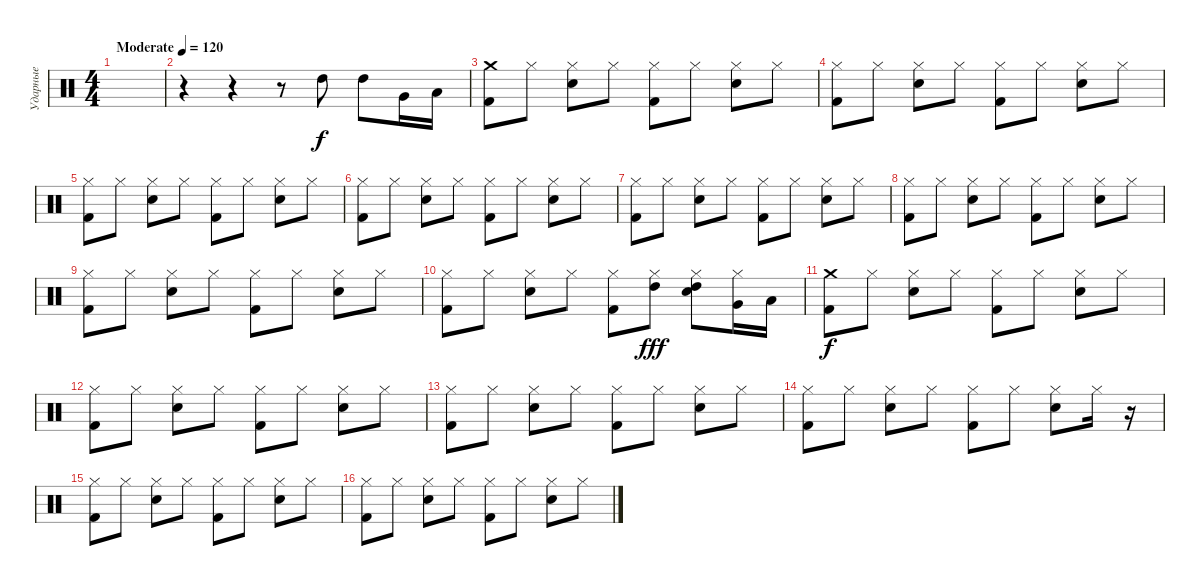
\track ("Ударные" "Ударные") {instrument percussion}
\staff {score}
\articulation defaults
\ts (4 4)
\tempo (120 "Moderate")
\clef neutral
\ks c
|
r.4 r.4 r.8 "High Tom (hit)".8 "High Tom (hit)".8 "Very Low Tom (hit)".16 "Low Floor Tom (hit)".16 |
("Kick (hit) 2" "Crash medium (hit)").8{dy f} "Hi-Hat (closed)".8 ("Electric Snare (hit)" "Hi-Hat (closed)").8 "Hi-Hat (closed)".8 ("Kick (hit) 2" "Hi-Hat (closed)").8 "Hi-Hat (closed)".8 ("Electric Snare (hit)" "Hi-Hat (closed)").8 "Hi-Hat (closed)".8 |
("Kick (hit) 2" "Hi-Hat (closed)").8 "Hi-Hat (closed)".8 ("Electric Snare (hit)" "Hi-Hat (closed)").8 "Hi-Hat (closed)".8 ("Kick (hit) 2" "Hi-Hat (closed)").8 "Hi-Hat (closed)".8 ("Electric Snare (hit)" "Hi-Hat (closed)").8 "Hi-Hat (closed)".8 |
("Kick (hit) 2" "Hi-Hat (closed)").8 "Hi-Hat (closed)".8 ("Electric Snare (hit)" "Hi-Hat (closed)").8 "Hi-Hat (closed)".8 ("Kick (hit) 2" "Hi-Hat (closed)").8 "Hi-Hat (closed)".8 ("Electric Snare (hit)" "Hi-Hat (closed)").8 "Hi-Hat (closed)".8 |
("Kick (hit) 2" "Hi-Hat (closed)").8 "Hi-Hat (closed)".8 ("Electric Snare (hit)" "Hi-Hat (closed)").8 "Hi-Hat (closed)".8 ("Kick (hit) 2" "Hi-Hat (closed)").8 "Hi-Hat (closed)".8 ("Electric Snare (hit)" "Hi-Hat (closed)").8 "Hi-Hat (closed)".8 |
("Kick (hit) 2" "Hi-Hat (closed)").8 "Hi-Hat (closed)".8 ("Electric Snare (hit)" "Hi-Hat (closed)").8 "Hi-Hat (closed)".8 ("Kick (hit) 2" "Hi-Hat (closed)").8 "Hi-Hat (closed)".8 ("Electric Snare (hit)" "Hi-Hat (closed)").8 "Hi-Hat (closed)".8 |
("Kick (hit) 2" "Hi-Hat (closed)").8 "Hi-Hat (closed)".8 ("Electric Snare (hit)" "Hi-Hat (closed)").8 "Hi-Hat (closed)".8 ("Kick (hit) 2" "Hi-Hat (closed)").8 "Hi-Hat (closed)".8 ("Electric Snare (hit)" "Hi-Hat (closed)").8 "Hi-Hat (closed)".8 |
("Kick (hit) 2" "Hi-Hat (closed)").8 "Hi-Hat (closed)".8 ("Electric Snare (hit)" "Hi-Hat (closed)").8 "Hi-Hat (closed)".8 ("Kick (hit) 2" "Hi-Hat (closed)").8 "Hi-Hat (closed)".8 ("Electric Snare (hit)" "Hi-Hat (closed)").8 "Hi-Hat (closed)".8 |
("Kick (hit) 2" "Hi-Hat (closed)").8 "Hi-Hat (closed)".8 ("Electric Snare (hit)" "Hi-Hat (closed)").8 "Hi-Hat (closed)".8 ("Kick (hit) 2" "Hi-Hat (closed)").8 ("Hi-Hat (closed)" "High Tom (hit)").8{dy fff} ("Electric Snare (hit)" "Hi-Hat (closed)" "High Tom (hit)").8 ("Hi-Hat (closed)" "Very Low Tom (hit)").16 "Low Floor Tom (hit)".16 |
("Kick (hit) 2" "Crash medium (hit)").8{dy f} "Hi-Hat (closed)".8 ("Electric Snare (hit)" "Hi-Hat (closed)").8 "Hi-Hat (closed)".8 ("Kick (hit) 2" "Hi-Hat (closed)").8 "Hi-Hat (closed)".8 ("Electric Snare (hit)" "Hi-Hat (closed)").8 "Hi-Hat (closed)".8 |
("Kick (hit) 2" "Hi-Hat (closed)").8 "Hi-Hat (closed)".8 ("Electric Snare (hit)" "Hi-Hat (closed)").8 "Hi-Hat (closed)".8 ("Kick (hit) 2" "Hi-Hat (closed)").8 "Hi-Hat (closed)".8 ("Electric Snare (hit)" "Hi-Hat (closed)").8 "Hi-Hat (closed)".8 |
("Kick (hit) 2" "Hi-Hat (closed)").8 "Hi-Hat (closed)".8 ("Electric Snare (hit)" "Hi-Hat (closed)").8 "Hi-Hat (closed)".8 ("Kick (hit) 2" "Hi-Hat (closed)").8 "Hi-Hat (closed)".8 ("Electric Snare (hit)" "Hi-Hat (closed)").8 "Hi-Hat (closed)".8 |
("Kick (hit) 2" "Hi-Hat (closed)").8 "Hi-Hat (closed)".8 ("Electric Snare (hit)" "Hi-Hat (closed)").8 "Hi-Hat (closed)".8 ("Kick (hit) 2" "Hi-Hat (closed)").8 "Hi-Hat (closed)".8 ("Electric Snare (hit)" "Hi-Hat (closed)").8 "Hi-Hat (closed)".16 r.16 |
("Kick (hit) 2" "Hi-Hat (closed)").8 "Hi-Hat (closed)".8 ("Electric Snare (hit)" "Hi-Hat (closed)").8 "Hi-Hat (closed)".8 ("Kick (hit) 2" "Hi-Hat (closed)").8 "Hi-Hat (closed)".8 ("Electric Snare (hit)" "Hi-Hat (closed)").8 "Hi-Hat (closed)".8 |
("Kick (hit) 2" "Hi-Hat (closed)").8 "Hi-Hat (closed)".8 ("Electric Snare (hit)" "Hi-Hat (closed)").8 "Hi-Hat (closed)".8 ("Kick (hit) 2" "Hi-Hat (closed)").8 "Hi-Hat (closed)".8 ("Electric Snare (hit)" "Hi-Hat (closed)").8 "Hi-Hat (closed)".8
